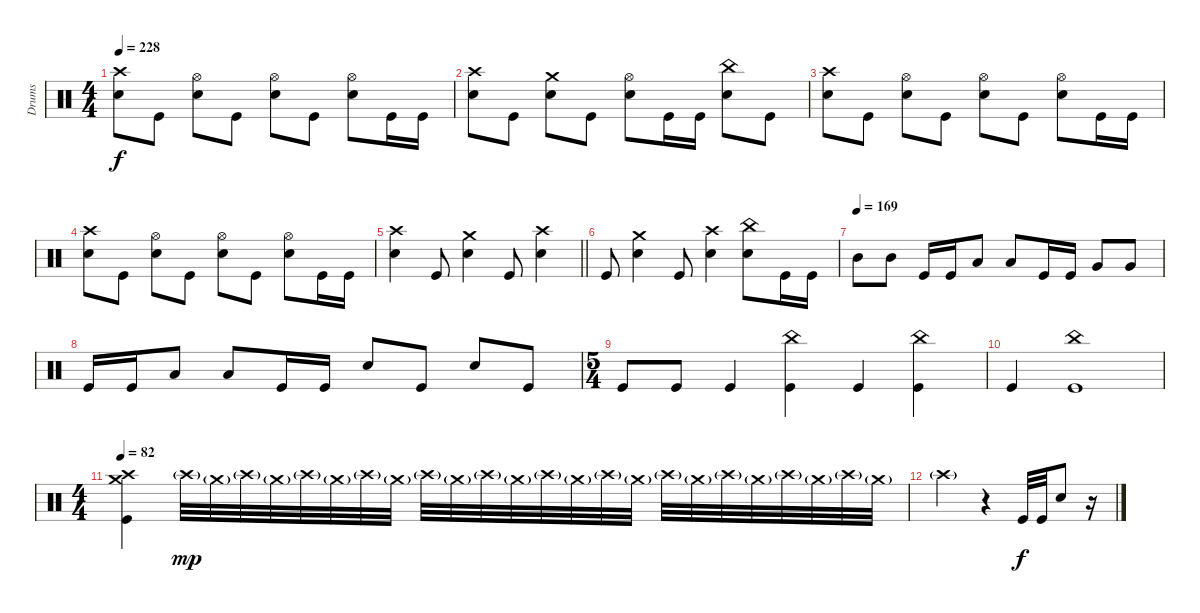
\track ("Drums" "Drums") {instrument percussion}
\staff
\articulation defaults
\ts (4 4)
\tempo 228
\clef neutral
\ks c
("Crash high (hit)" "Electric Snare (hit)").8{dy f} "Kick (hit)".8 ("Hi-Hat (open)" "Electric Snare (hit)").8 "Kick (hit)".8 ("Hi-Hat (open)" "Electric Snare (hit)").8 "Kick (hit)".8 ("Hi-Hat (open)" "Electric Snare (hit)").8 "Kick (hit)".16 "Kick (hit)".16 |
("Crash high (hit)" "Electric Snare (hit)").8 "Kick (hit)".8 ("Crash medium (hit)" "Electric Snare (hit)").8 "Kick (hit)".8 ("Hi-Hat (open)" "Electric Snare (hit)").8 "Kick (hit)".16 "Kick (hit)".16 ("China (hit)" "Electric Snare (hit)").8 "Kick (hit)".8 |
("Crash high (hit)" "Electric Snare (hit)").8 "Kick (hit)".8 ("Hi-Hat (open)" "Electric Snare (hit)").8 "Kick (hit)".8 ("Hi-Hat (open)" "Electric Snare (hit)").8 "Kick (hit)".8 ("Hi-Hat (open)" "Electric Snare (hit)").8 "Kick (hit)".16 "Kick (hit)".16 |
("Crash high (hit)" "Electric Snare (hit)").8 "Kick (hit)".8 ("Hi-Hat (open)" "Electric Snare (hit)").8 "Kick (hit)".8 ("Hi-Hat (open)" "Electric Snare (hit)").8 "Kick (hit)".8 ("Hi-Hat (open)" "Electric Snare (hit)").8 "Kick (hit)".16 "Kick (hit)".16 |
\barLineRight lightlight
("Crash high (hit)" "Electric Snare (hit)").4 "Kick (hit)".8 ("Crash medium (hit)" "Electric Snare (hit)").4 "Kick (hit)".8 ("Crash high (hit)" "Electric Snare (hit)").4 |
"Kick (hit)".8 ("Crash medium (hit)" "Electric Snare (hit)").4 "Kick (hit)".8 ("Crash high (hit)" "Electric Snare (hit)").4 ("China (hit)" "Electric Snare (hit)").8 "Kick (hit)".16 "Kick (hit)".16 |
\tempo (169)
"Mid Tom (hit)".8 "Mid Tom (hit)".8 "Kick (hit)".16 "Kick (hit)".16 "Low Tom (hit)".8 "Low Tom (hit)".8 "Kick (hit)".16 "Kick (hit)".16 "Very Low Tom (hit)".8 "Very Low Tom (hit)".8 |
"Kick (hit)".16 "Kick (hit)".16 "Low Floor Tom (hit)".8 "Low Floor Tom (hit)".8 "Kick (hit)".16 "Kick (hit)".16 "Electric Snare (hit)".8 "Kick (hit)".8 "Electric Snare (hit)".8 "Kick (hit)".8 |
\ts (5 4)
"Kick (hit)".8 "Kick (hit)".8 "Kick (hit)".4 ("China (hit)" "Kick (hit)").4 "Kick (hit)".4 ("China (hit)" "Kick (hit)").4 |
"Kick (hit)".4 ("China (hit)" "Kick (hit)").1 |
\ts (4 4)
\tempo 82
("Crash high (hit)" "Crash medium (hit)" "Kick (hit)").4 "Crash high (hit)"{g}.32{dy mp} "Crash medium (hit)"{g}.32 "Crash high (hit)"{g}.32 "Crash medium (hit)"{g}.32 "Crash high (hit)"{g}.32 "Crash medium (hit)"{g}.32 "Crash high (hit)"{g}.32 "Crash medium (hit)"{g}.32 "Crash high (hit)"{g}.32 "Crash medium (hit)"{g}.32 "Crash high (hit)"{g}.32 "Crash medium (hit)"{g}.32 "Crash high (hit)"{g}.32 "Crash medium (hit)"{g}.32 "Crash high (hit)"{g}.32 "Crash medium (hit)"{g}.32 "Crash high (hit)"{g}.32 "Crash medium (hit)"{g}.32 "Crash high (hit)"{g}.32 "Crash medium (hit)"{g}.32 "Crash high (hit)"{g}.32 "Crash medium (hit)"{g}.32 "Crash high (hit)"{g}.32 "Crash medium (hit)"{g}.32 |
"Crash high (hit)"{g}.2 r.4 "Kick (hit)".32{dy f} "Kick (hit)".32 "Electric Snare (hit)".8 r.16
